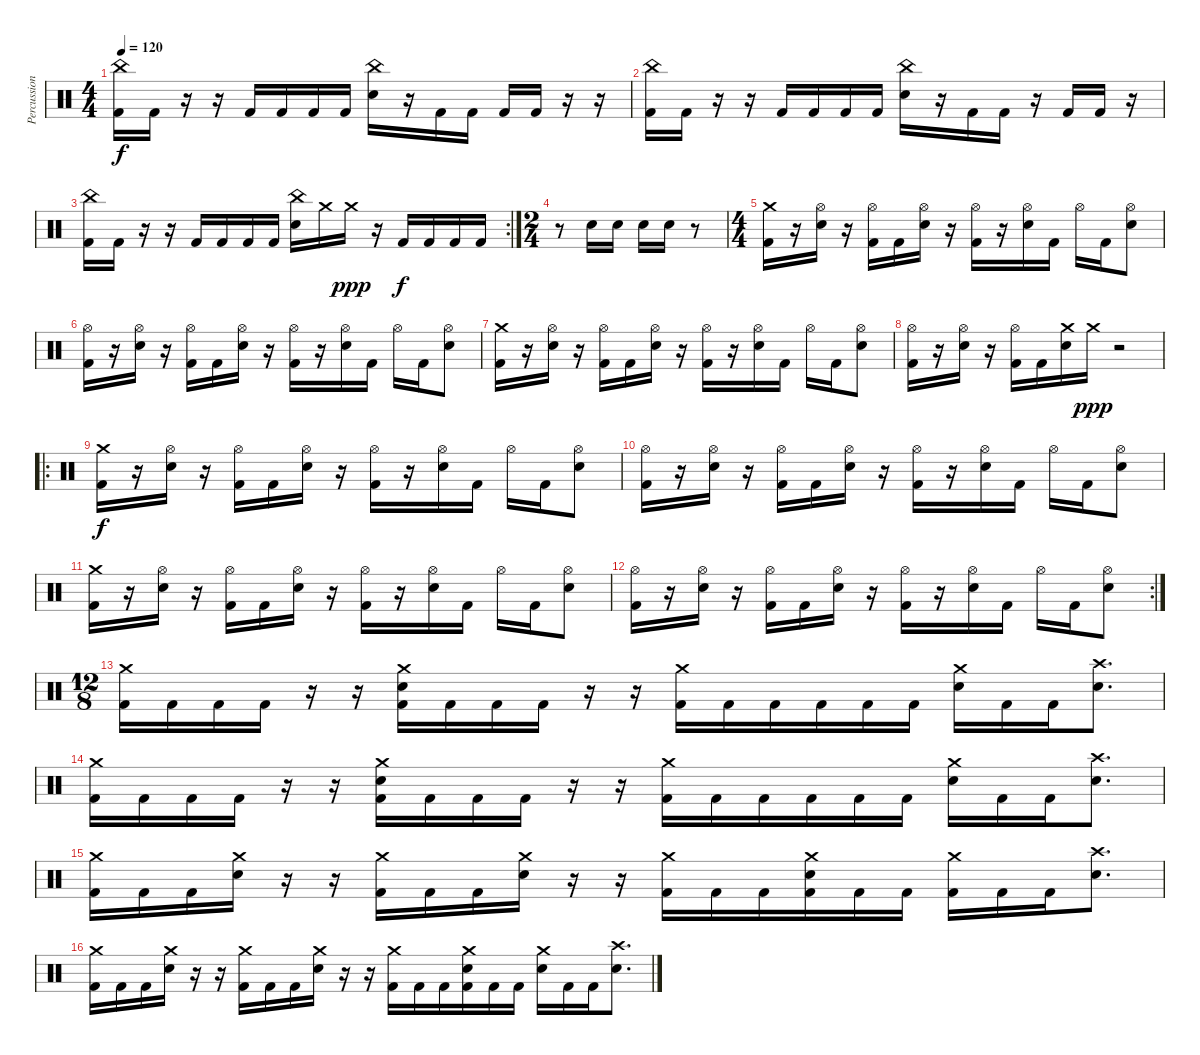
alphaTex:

\track ("Percussion" "Percussion") {instrument percussion}
\staff {score}
\articulation defaults
\ts (4 4)
\tempo 120
\clef neutral
\ks c
("China (hit)" "Kick (hit) 2").16{dy f} "Kick (hit) 2".16 r.16 r.16 "Kick (hit) 2".16 "Kick (hit) 2".16 "Kick (hit) 2".16 "Kick (hit) 2".16 ("China (hit)" "Electric Snare (hit)").16 r.16 "Kick (hit) 2".16 "Kick (hit) 2".16 "Kick (hit) 2".16 "Kick (hit) 2".16 r.16 r.16 |
("China (hit)" "Kick (hit) 2").16 "Kick (hit) 2".16 r.16 r.16 "Kick (hit) 2".16 "Kick (hit) 2".16 "Kick (hit) 2".16 "Kick (hit) 2".16 ("China (hit)" "Electric Snare (hit)").16 r.16 "Kick (hit) 2".16 "Kick (hit) 2".16 r.16 "Kick (hit) 2".16 "Kick (hit) 2".16 r.16 |
\rc 2
("China (hit)" "Kick (hit) 2").16 "Kick (hit) 2".16 r.16 r.16 "Kick (hit) 2".16 "Kick (hit) 2".16 "Kick (hit) 2".16 "Kick (hit) 2".16 ("China (hit)" "Electric Snare (hit)").16 "Crash medium (hit)".16 "Crash medium (hit)".16{dy ppp} r.16 "Kick (hit) 2".16{dy f} "Kick (hit) 2".16 "Kick (hit) 2".16 "Kick (hit) 2".16 |
\ts (2 4)
r.8 "Electric Snare (hit)".16 "Electric Snare (hit)".16 "Electric Snare (hit)".16 "Electric Snare (hit)".16 r.8 |
\ts (4 4)
("Crash medium (hit)" "Kick (hit) 2").16 r.16 ("Hi-Hat (open)" "Electric Snare (hit)").16 r.16 ("Hi-Hat (open)" "Kick (hit) 2").16 "Kick (hit) 2".16 ("Hi-Hat (open)" "Electric Snare (hit)").16 r.16 ("Hi-Hat (open)" "Kick (hit) 2").16 r.16 ("Hi-Hat (open)" "Electric Snare (hit)").16 "Kick (hit) 2".16 "Hi-Hat (open)".16 "Kick (hit) 2".16 ("Hi-Hat (open)" "Electric Snare (hit)").8 |
("Hi-Hat (open)" "Kick (hit) 2").16 r.16 ("Hi-Hat (open)" "Electric Snare (hit)").16 r.16 ("Hi-Hat (open)" "Kick (hit) 2").16 "Kick (hit) 2".16 ("Hi-Hat (open)" "Electric Snare (hit)").16 r.16 ("Hi-Hat (open)" "Kick (hit) 2").16 r.16 ("Hi-Hat (open)" "Electric Snare (hit)").16 "Kick (hit) 2".16 "Hi-Hat (open)".16 "Kick (hit) 2".16 ("Hi-Hat (open)" "Electric Snare (hit)").8 |
("Crash medium (hit)" "Kick (hit) 2").16 r.16 ("Hi-Hat (open)" "Electric Snare (hit)").16 r.16 ("Hi-Hat (open)" "Kick (hit) 2").16 "Kick (hit) 2".16 ("Hi-Hat (open)" "Electric Snare (hit)").16 r.16 ("Hi-Hat (open)" "Kick (hit) 2").16 r.16 ("Hi-Hat (open)" "Electric Snare (hit)").16 "Kick (hit) 2".16 "Hi-Hat (open)".16 "Kick (hit) 2".16 ("Hi-Hat (open)" "Electric Snare (hit)").8 |
("Hi-Hat (open)" "Kick (hit) 2").16 r.16 ("Hi-Hat (open)" "Electric Snare (hit)").16 r.16 ("Hi-Hat (open)" "Kick (hit) 2").16 "Kick (hit) 2".16 ("Crash medium (hit)" "Electric Snare (hit)").16 "Crash medium (hit)".16{dy ppp} r.2 |
\ro
("Crash medium (hit)" "Kick (hit) 2").16{dy f} r.16 ("Hi-Hat (open)" "Electric Snare (hit)").16 r.16 ("Hi-Hat (open)" "Kick (hit) 2").16 "Kick (hit) 2".16 ("Hi-Hat (open)" "Electric Snare (hit)").16 r.16 ("Hi-Hat (open)" "Kick (hit) 2").16 r.16 ("Hi-Hat (open)" "Electric Snare (hit)").16 "Kick (hit) 2".16 "Hi-Hat (open)".16 "Kick (hit) 2".16 ("Hi-Hat (open)" "Electric Snare (hit)").8 |
("Hi-Hat (open)" "Kick (hit) 2").16 r.16 ("Hi-Hat (open)" "Electric Snare (hit)").16 r.16 ("Hi-Hat (open)" "Kick (hit) 2").16 "Kick (hit) 2".16 ("Hi-Hat (open)" "Electric Snare (hit)").16 r.16 ("Hi-Hat (open)" "Kick (hit) 2").16 r.16 ("Hi-Hat (open)" "Electric Snare (hit)").16 "Kick (hit) 2".16 "Hi-Hat (open)".16 "Kick (hit) 2".16 ("Hi-Hat (open)" "Electric Snare (hit)").8 |
("Crash medium (hit)" "Kick (hit) 2").16 r.16 ("Hi-Hat (open)" "Electric Snare (hit)").16 r.16 ("Hi-Hat (open)" "Kick (hit) 2").16 "Kick (hit) 2".16 ("Hi-Hat (open)" "Electric Snare (hit)").16 r.16 ("Hi-Hat (open)" "Kick (hit) 2").16 r.16 ("Hi-Hat (open)" "Electric Snare (hit)").16 "Kick (hit) 2".16 "Hi-Hat (open)".16 "Kick (hit) 2".16 ("Hi-Hat (open)" "Electric Snare (hit)").8 |
\rc 2
("Hi-Hat (open)" "Kick (hit) 2").16 r.16 ("Hi-Hat (open)" "Electric Snare (hit)").16 r.16 ("Hi-Hat (open)" "Kick (hit) 2").16 "Kick (hit) 2".16 ("Hi-Hat (open)" "Electric Snare (hit)").16 r.16 ("Hi-Hat (open)" "Kick (hit) 2").16 r.16 ("Hi-Hat (open)" "Electric Snare (hit)").16 "Kick (hit) 2".16 "Hi-Hat (open)".16 "Kick (hit) 2".16 ("Hi-Hat (open)" "Electric Snare (hit)").8 |
\ts (12 8)
("Kick (hit) 2" "Crash medium (hit)").16 "Kick (hit) 2".16 "Kick (hit) 2".16 "Kick (hit) 2".16 r.16 r.16 ("Kick (hit) 2" "Electric Snare (hit)" "Crash medium (hit)").16 "Kick (hit) 2".16 "Kick (hit) 2".16 "Kick (hit) 2".16 r.16 r.16 ("Kick (hit) 2" "Crash medium (hit)").16 "Kick (hit) 2".16 "Kick (hit) 2".16 "Kick (hit) 2".16 "Kick (hit) 2".16 "Kick (hit) 2".16 ("Electric Snare (hit)" "Crash medium (hit)").16 "Kick (hit) 2".16 "Kick (hit) 2".16 ("Electric Snare (hit)" "Crash high (hit)").8{d} |
("Kick (hit) 2" "Crash medium (hit)").16 "Kick (hit) 2".16 "Kick (hit) 2".16 "Kick (hit) 2".16 r.16 r.16 ("Kick (hit) 2" "Electric Snare (hit)" "Crash medium (hit)").16 "Kick (hit) 2".16 "Kick (hit) 2".16 "Kick (hit) 2".16 r.16 r.16 ("Kick (hit) 2" "Crash medium (hit)").16 "Kick (hit) 2".16 "Kick (hit) 2".16 "Kick (hit) 2".16 "Kick (hit) 2".16 "Kick (hit) 2".16 ("Electric Snare (hit)" "Crash medium (hit)").16 "Kick (hit) 2".16 "Kick (hit) 2".16 ("Electric Snare (hit)" "Crash high (hit)").8{d} |
("Kick (hit) 2" "Crash medium (hit)").16 "Kick (hit) 2".16 "Kick (hit) 2".16 ("Electric Snare (hit)" "Crash medium (hit)").16 r.16 r.16 ("Kick (hit) 2" "Crash medium (hit)").16 "Kick (hit) 2".16 "Kick (hit) 2".16 ("Electric Snare (hit)" "Crash medium (hit)").16 r.16 r.16 ("Kick (hit) 2" "Crash medium (hit)").16 "Kick (hit) 2".16 "Kick (hit) 2".16 ("Kick (hit) 2" "Electric Snare (hit)" "Crash medium (hit)").16 "Kick (hit) 2".16 "Kick (hit) 2".16 ("Kick (hit) 2" "Crash medium (hit)").16 "Kick (hit) 2".16 "Kick (hit) 2".16 ("Electric Snare (hit)" "Crash high (hit)").8{d} |
("Kick (hit) 2" "Crash medium (hit)").16 "Kick (hit) 2".16 "Kick (hit) 2".16 ("Electric Snare (hit)" "Crash medium (hit)").16 r.16 r.16 ("Kick (hit) 2" "Crash medium (hit)").16 "Kick (hit) 2".16 "Kick (hit) 2".16 ("Electric Snare (hit)" "Crash medium (hit)").16 r.16 r.16 ("Kick (hit) 2" "Crash medium (hit)").16 "Kick (hit) 2".16 "Kick (hit) 2".16 ("Kick (hit) 2" "Electric Snare (hit)" "Crash medium (hit)").16 "Kick (hit) 2".16 "Kick (hit) 2".16 ("Electric Snare (hit)" "Crash medium (hit)").16 "Kick (hit) 2".16 "Kick (hit) 2".16 ("Electric Snare (hit)" "Crash high (hit)").8{d}
